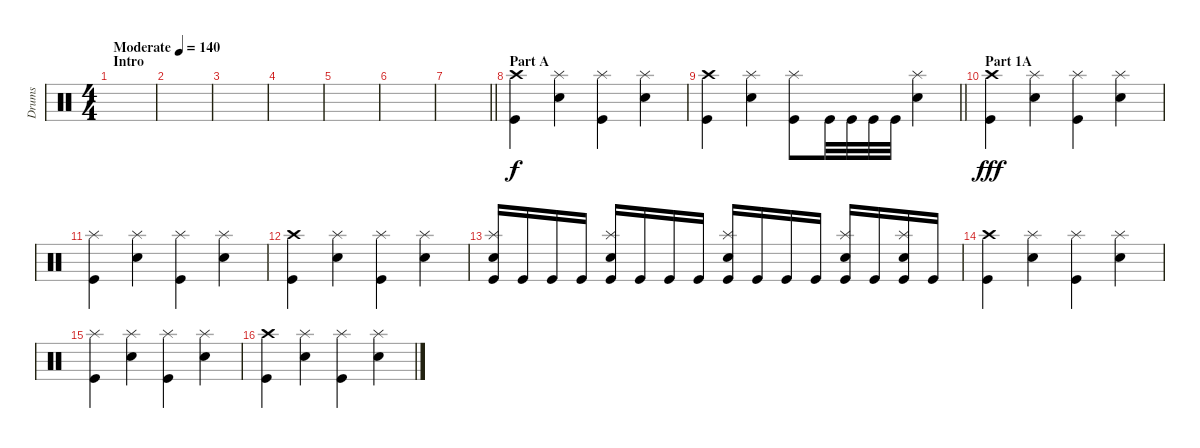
\track ("Drums" "Drums") {instrument percussion}
\staff {score}
\articulation defaults
\ts (4 4)
\section ("" "Intro")
\tempo (140 "Moderate")
\clef neutral
\ks c
|
|
|
|
|
|
\barLineRight lightlight
|
\section ("" "Part A")
("Crash high (hit)" "Kick (hit)").4 ("Splash (hit)" "Electric Snare (hit)").4 ("Splash (hit)" "Kick (hit)").4 ("Splash (hit)" "Electric Snare (hit)").4 |
\barLineRight lightlight
("Crash high (hit)" "Kick (hit)").4 ("Splash (hit)" "Electric Snare (hit)").4 ("Splash (hit)" "Kick (hit)").8 "Kick (hit)".32 "Kick (hit)".32 "Kick (hit)".32 "Kick (hit)".32 ("Splash (hit)" "Electric Snare (hit)").4{dy f} |
\section ("" "Part 1A")
("Crash high (hit)" "Kick (hit)").4{dy fff} ("Splash (hit)" "Electric Snare (hit)").4 ("Splash (hit)" "Kick (hit)").4 ("Splash (hit)" "Electric Snare (hit)").4 |
("Splash (hit)" "Kick (hit)").4 ("Splash (hit)" "Electric Snare (hit)").4 ("Splash (hit)" "Kick (hit)").4 ("Splash (hit)" "Electric Snare (hit)").4 |
("Crash high (hit)" "Kick (hit)").4 ("Splash (hit)" "Electric Snare (hit)").4 ("Splash (hit)" "Kick (hit)").4 ("Splash (hit)" "Electric Snare (hit)").4 |
("Splash (hit)" "Electric Snare (hit)" "Kick (hit)").16 "Kick (hit)".16 "Kick (hit)".16 "Kick (hit)".16 ("Splash (hit)" "Electric Snare (hit)" "Kick (hit)").16 "Kick (hit)".16 "Kick (hit)".16 "Kick (hit)".16 ("Splash (hit)" "Electric Snare (hit)" "Kick (hit)").16 "Kick (hit)".16 "Kick (hit)".16 "Kick (hit)".16 ("Splash (hit)" "Electric Snare (hit)" "Kick (hit)").16 "Kick (hit)".16 ("Splash (hit)" "Electric Snare (hit)" "Kick (hit)").16 "Kick (hit)".16 |
("Crash high (hit)" "Kick (hit)").4 ("Splash (hit)" "Electric Snare (hit)").4 ("Splash (hit)" "Kick (hit)").4 ("Splash (hit)" "Electric Snare (hit)").4 |
("Splash (hit)" "Kick (hit)").4 ("Splash (hit)" "Electric Snare (hit)").4 ("Splash (hit)" "Kick (hit)").4 ("Splash (hit)" "Electric Snare (hit)").4 |
("Crash high (hit)" "Kick (hit)").4 ("Splash (hit)" "Electric Snare (hit)").4 ("Splash (hit)" "Kick (hit)").4 ("Splash (hit)" "Electric Snare (hit)").4
